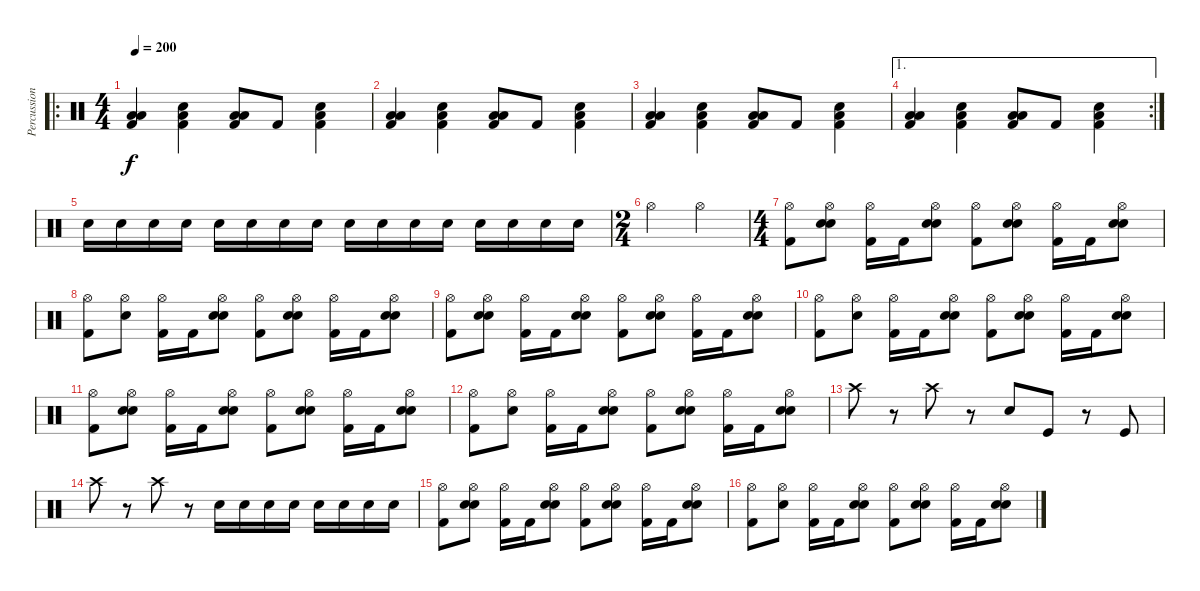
\track ("Percussion" "Percussion") {instrument percussion}
\staff {score}
\articulation defaults
\ro
\ts (4 4)
\tempo 200
\clef neutral
\ks c
("Low Floor Tom (hit)" "Low Floor Tom (hit)" "Kick (hit) 2").4{dy f} ("Low Floor Tom (hit)" "Electric Snare (hit)" "Kick (hit) 2").4 ("Low Floor Tom (hit)" "Low Floor Tom (hit)" "Kick (hit) 2").8 "Kick (hit) 2".8 ("Low Floor Tom (hit)" "Electric Snare (hit)" "Kick (hit) 2").4 |
("Low Floor Tom (hit)" "Low Floor Tom (hit)" "Kick (hit) 2").4 ("Low Floor Tom (hit)" "Electric Snare (hit)" "Kick (hit) 2").4 ("Low Floor Tom (hit)" "Low Floor Tom (hit)" "Kick (hit) 2").8 "Kick (hit) 2".8 ("Low Floor Tom (hit)" "Electric Snare (hit)" "Kick (hit) 2").4 |
("Low Floor Tom (hit)" "Low Floor Tom (hit)" "Kick (hit) 2").4 ("Low Floor Tom (hit)" "Electric Snare (hit)" "Kick (hit) 2").4 ("Low Floor Tom (hit)" "Low Floor Tom (hit)" "Kick (hit) 2").8 "Kick (hit) 2".8 ("Low Floor Tom (hit)" "Electric Snare (hit)" "Kick (hit) 2").4 |
\ae 1
\rc 2
("Low Floor Tom (hit)" "Low Floor Tom (hit)" "Kick (hit) 2").4 ("Low Floor Tom (hit)" "Electric Snare (hit)" "Kick (hit) 2").4 ("Low Floor Tom (hit)" "Low Floor Tom (hit)" "Kick (hit) 2").8 "Kick (hit) 2".8 ("Low Floor Tom (hit)" "Electric Snare (hit)" "Kick (hit) 2").4 |
"Electric Snare (hit)".16 "Electric Snare (hit)".16 "Electric Snare (hit)".16 "Electric Snare (hit)".16 "Electric Snare (hit)".16 "Electric Snare (hit)".16 "Electric Snare (hit)".16 "Electric Snare (hit)".16 "Electric Snare (hit)".16 "Electric Snare (hit)".16 "Electric Snare (hit)".16 "Electric Snare (hit)".16 "Electric Snare (hit)".16 "Electric Snare (hit)".16 "Electric Snare (hit)".16 "Electric Snare (hit)".16 |
\ts (2 4)
"Hi-Hat (open)".4 "Hi-Hat (open)".4 |
\ts (4 4)
("Hi-Hat (open)" "Kick (hit) 2").8 ("Hi-Hat (open)" "Electric Snare (hit)" "Electric Snare (hit)").8 ("Hi-Hat (open)" "Kick (hit) 2").16 "Kick (hit) 2".16 ("Hi-Hat (open)" "Electric Snare (hit)" "Electric Snare (hit)").8 ("Hi-Hat (open)" "Kick (hit) 2").8 ("Hi-Hat (open)" "Electric Snare (hit)" "Electric Snare (hit)").8 ("Hi-Hat (open)" "Kick (hit) 2").16 "Kick (hit) 2".16 ("Hi-Hat (open)" "Electric Snare (hit)" "Electric Snare (hit)").8 |
("Hi-Hat (open)" "Kick (hit) 2").8 ("Hi-Hat (open)" "Electric Snare (hit)").8 ("Hi-Hat (open)" "Kick (hit) 2").16 "Kick (hit) 2".16 ("Hi-Hat (open)" "Electric Snare (hit)" "Electric Snare (hit)").8 ("Hi-Hat (open)" "Kick (hit) 2").8 ("Hi-Hat (open)" "Electric Snare (hit)" "Electric Snare (hit)").8 ("Hi-Hat (open)" "Kick (hit) 2").16 "Kick (hit) 2".16 ("Hi-Hat (open)" "Electric Snare (hit)" "Electric Snare (hit)").8 |
("Hi-Hat (open)" "Kick (hit) 2").8 ("Hi-Hat (open)" "Electric Snare (hit)" "Electric Snare (hit)").8 ("Hi-Hat (open)" "Kick (hit) 2").16 "Kick (hit) 2".16 ("Hi-Hat (open)" "Electric Snare (hit)" "Electric Snare (hit)").8 ("Hi-Hat (open)" "Kick (hit) 2").8 ("Hi-Hat (open)" "Electric Snare (hit)" "Electric Snare (hit)").8 ("Hi-Hat (open)" "Kick (hit) 2").16 "Kick (hit) 2".16 ("Hi-Hat (open)" "Electric Snare (hit)" "Electric Snare (hit)").8 |
("Hi-Hat (open)" "Kick (hit) 2").8 ("Hi-Hat (open)" "Electric Snare (hit)").8 ("Hi-Hat (open)" "Kick (hit) 2").16 "Kick (hit) 2".16 ("Hi-Hat (open)" "Electric Snare (hit)" "Electric Snare (hit)").8 ("Hi-Hat (open)" "Kick (hit) 2").8 ("Hi-Hat (open)" "Electric Snare (hit)" "Electric Snare (hit)").8 ("Hi-Hat (open)" "Kick (hit) 2").16 "Kick (hit) 2".16 ("Hi-Hat (open)" "Electric Snare (hit)" "Electric Snare (hit)").8 |
("Hi-Hat (open)" "Kick (hit) 2").8 ("Hi-Hat (open)" "Electric Snare (hit)" "Electric Snare (hit)").8 ("Hi-Hat (open)" "Kick (hit) 2").16 "Kick (hit) 2".16 ("Hi-Hat (open)" "Electric Snare (hit)" "Electric Snare (hit)").8 ("Hi-Hat (open)" "Kick (hit) 2").8 ("Hi-Hat (open)" "Electric Snare (hit)" "Electric Snare (hit)").8 ("Hi-Hat (open)" "Kick (hit) 2").16 "Kick (hit) 2".16 ("Hi-Hat (open)" "Electric Snare (hit)" "Electric Snare (hit)").8 |
("Hi-Hat (open)" "Kick (hit) 2").8 ("Hi-Hat (open)" "Electric Snare (hit)").8 ("Hi-Hat (open)" "Kick (hit) 2").16 "Kick (hit) 2".16 ("Hi-Hat (open)" "Electric Snare (hit)" "Electric Snare (hit)").8 ("Hi-Hat (open)" "Kick (hit) 2").8 ("Hi-Hat (open)" "Electric Snare (hit)" "Electric Snare (hit)").8 ("Hi-Hat (open)" "Kick (hit) 2").16 "Kick (hit) 2".16 ("Hi-Hat (open)" "Electric Snare (hit)" "Electric Snare (hit)").8 |
"Crash high (hit)".8 r.8 "Crash high (hit)".8 r.8 "Electric Snare (hit)".8 "Kick (hit)".8 r.8 "Kick (hit)".8 |
"Crash high (hit)".8 r.8 "Crash high (hit)".8 r.8 "Electric Snare (hit)".16 "Electric Snare (hit)".16 "Electric Snare (hit)".16 "Electric Snare (hit)".16 "Electric Snare (hit)".16 "Electric Snare (hit)".16 "Electric Snare (hit)".16 "Electric Snare (hit)".16 |
("Hi-Hat (open)" "Kick (hit) 2").8 ("Hi-Hat (open)" "Electric Snare (hit)" "Electric Snare (hit)").8 ("Hi-Hat (open)" "Kick (hit) 2").16 "Kick (hit) 2".16 ("Hi-Hat (open)" "Electric Snare (hit)" "Electric Snare (hit)").8 ("Hi-Hat (open)" "Kick (hit) 2").8 ("Hi-Hat (open)" "Electric Snare (hit)" "Electric Snare (hit)").8 ("Hi-Hat (open)" "Kick (hit) 2").16 "Kick (hit) 2".16 ("Hi-Hat (open)" "Electric Snare (hit)" "Electric Snare (hit)").8 |
("Hi-Hat (open)" "Kick (hit) 2").8 ("Hi-Hat (open)" "Electric Snare (hit)").8 ("Hi-Hat (open)" "Kick (hit) 2").16 "Kick (hit) 2".16 ("Hi-Hat (open)" "Electric Snare (hit)" "Electric Snare (hit)").8 ("Hi-Hat (open)" "Kick (hit) 2").8 ("Hi-Hat (open)" "Electric Snare (hit)" "Electric Snare (hit)").8 ("Hi-Hat (open)" "Kick (hit) 2").16 "Kick (hit) 2".16 ("Hi-Hat (open)" "Electric Snare (hit)" "Electric Snare (hit)").8
